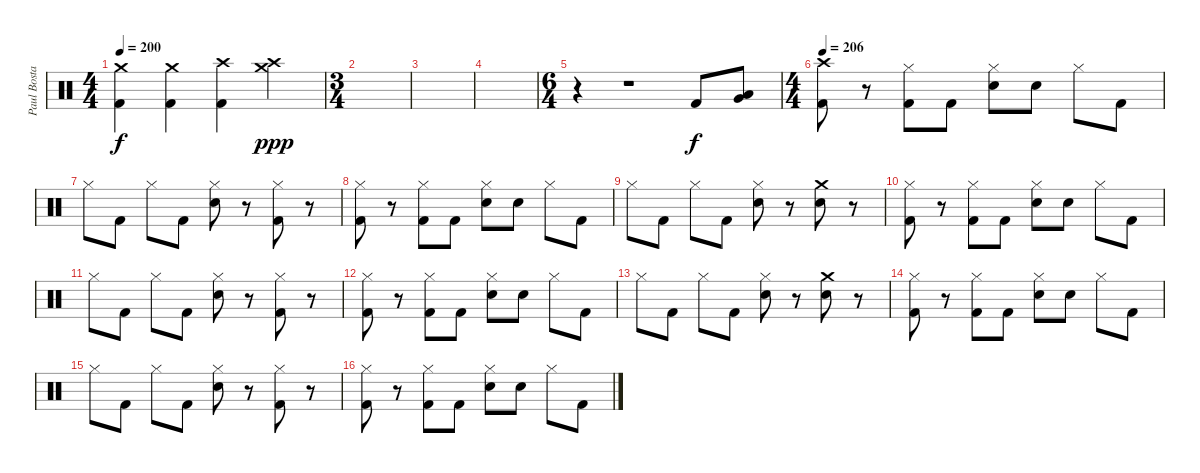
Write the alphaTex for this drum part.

\track ("Paul Bostaph" "Paul Bosta") {instrument percussion}
\staff {score}
\articulation defaults
\ts (4 4)
\tempo 200
\clef neutral
\ks c
("Crash medium (hit)" "Kick (hit) 2").4{dy f} ("Crash medium (hit)" "Kick (hit) 2").4 ("Crash high (hit)" "Kick (hit) 2").4 ("Crash medium (hit)" "Crash high (hit)").4{dy ppp} |
\ts (3 4)
|
|
|
\ts (6 4)
r.4 r.1 "Kick (hit) 2".8{dy f} ("Low Tom (hit)" "Very Low Tom (hit)").8 |
\ts (4 4)
\tempo 206
("Crash high (hit)" "Kick (hit) 2").8 r.8 ("Kick (hit) 2" "Hi-Hat (closed)").8 "Kick (hit) 2".8 ("Electric Snare (hit)" "Hi-Hat (closed)").8 "Electric Snare (hit)".8 "Hi-Hat (closed)".8 "Kick (hit) 2".8 |
"Hi-Hat (closed)".8 "Kick (hit) 2".8 "Hi-Hat (closed)".8 "Kick (hit) 2".8 ("Electric Snare (hit)" "Hi-Hat (closed)").8 r.8 ("Kick (hit) 2" "Hi-Hat (closed)").8 r.8 |
("Hi-Hat (closed)" "Kick (hit) 2").8 r.8 ("Kick (hit) 2" "Hi-Hat (closed)").8 "Kick (hit) 2".8 ("Electric Snare (hit)" "Hi-Hat (closed)").8 "Electric Snare (hit)".8 "Hi-Hat (closed)".8 "Kick (hit) 2".8 |
"Hi-Hat (closed)".8 "Kick (hit) 2".8 "Hi-Hat (closed)".8 "Kick (hit) 2".8 ("Electric Snare (hit)" "Hi-Hat (closed)").8 r.8 ("Electric Snare (hit)" "Crash medium (hit)").8 r.8 |
("Hi-Hat (closed)" "Kick (hit) 2").8 r.8 ("Kick (hit) 2" "Hi-Hat (closed)").8 "Kick (hit) 2".8 ("Electric Snare (hit)" "Hi-Hat (closed)").8 "Electric Snare (hit)".8 "Hi-Hat (closed)".8 "Kick (hit) 2".8 |
"Hi-Hat (closed)".8 "Kick (hit) 2".8 "Hi-Hat (closed)".8 "Kick (hit) 2".8 ("Electric Snare (hit)" "Hi-Hat (closed)").8 r.8 ("Kick (hit) 2" "Hi-Hat (closed)").8 r.8 |
("Hi-Hat (closed)" "Kick (hit) 2").8 r.8 ("Kick (hit) 2" "Hi-Hat (closed)").8 "Kick (hit) 2".8 ("Electric Snare (hit)" "Hi-Hat (closed)").8 "Electric Snare (hit)".8 "Hi-Hat (closed)".8 "Kick (hit) 2".8 |
"Hi-Hat (closed)".8 "Kick (hit) 2".8 "Hi-Hat (closed)".8 "Kick (hit) 2".8 ("Electric Snare (hit)" "Hi-Hat (closed)").8 r.8 ("Electric Snare (hit)" "Crash medium (hit)").8 r.8 |
("Hi-Hat (closed)" "Kick (hit) 2").8 r.8 ("Kick (hit) 2" "Hi-Hat (closed)").8 "Kick (hit) 2".8 ("Electric Snare (hit)" "Hi-Hat (closed)").8 "Electric Snare (hit)".8 "Hi-Hat (closed)".8 "Kick (hit) 2".8 |
"Hi-Hat (closed)".8 "Kick (hit) 2".8 "Hi-Hat (closed)".8 "Kick (hit) 2".8 ("Electric Snare (hit)" "Hi-Hat (closed)").8 r.8 ("Kick (hit) 2" "Hi-Hat (closed)").8 r.8 |
("Hi-Hat (closed)" "Kick (hit) 2").8 r.8 ("Kick (hit) 2" "Hi-Hat (closed)").8 "Kick (hit) 2".8 ("Electric Snare (hit)" "Hi-Hat (closed)").8 "Electric Snare (hit)".8 "Hi-Hat (closed)".8 "Kick (hit) 2".8
